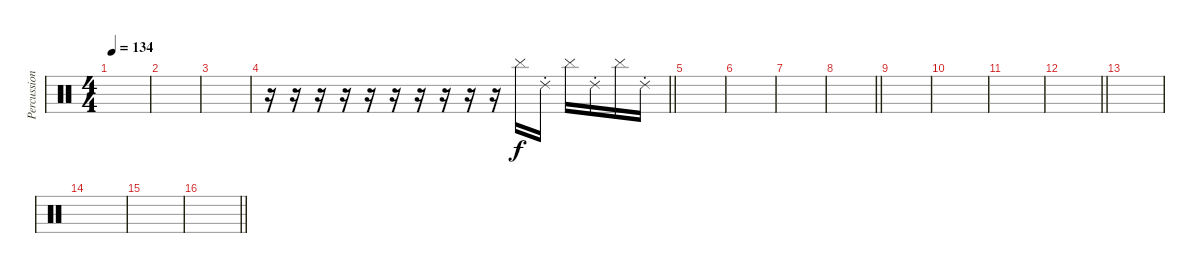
\track ("Percussion" "Percussion") {instrument percussion}
\staff {score}
\articulation defaults
\ts (4 4)
\tempo 134
\clef neutral
\ks c
|
|
|
\barLineRight lightlight
r.16 r.16 r.16 r.16 r.16 r.16 r.16 r.16 r.16 r.16 "Cymbal (hit)".16 "Ride (choke) 2".16 "Cymbal (hit)".16 "Ride (choke) 2".16 "Cymbal (hit)".16 "Ride (choke) 2".16 |
|
|
|
\barLineRight lightlight
|
|
|
|
\barLineRight lightlight
|
|
|
|
\barLineRight lightlight
